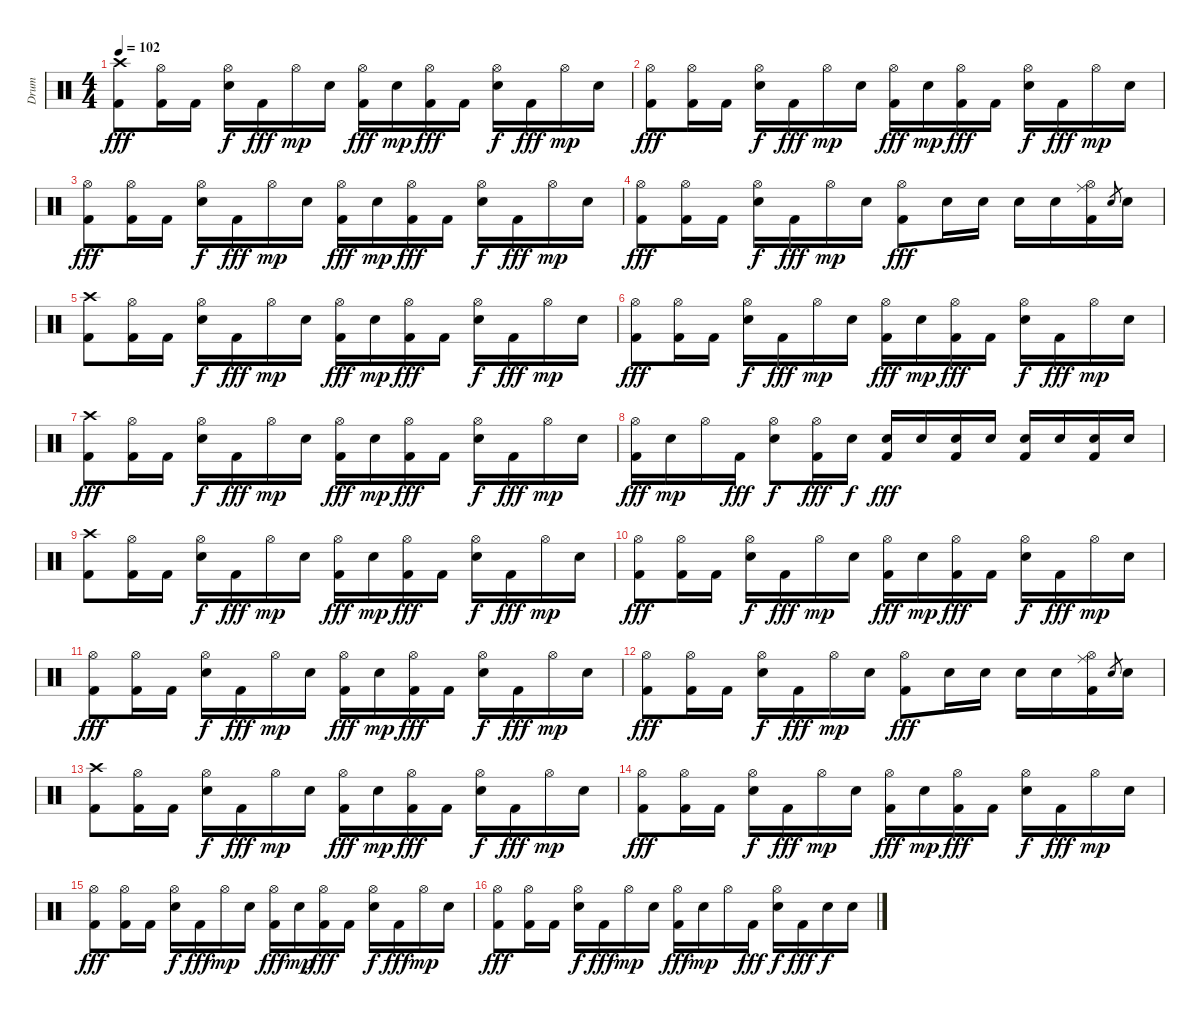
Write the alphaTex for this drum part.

\track ("Drum" "Drum") {instrument percussion}
\staff {score}
\articulation defaults
\ts (4 4)
\tempo 102
\clef neutral
\ks c
("Crash high (hit)" "Kick (hit) 2").8{dy fff} ("Hi-Hat (open)" "Kick (hit) 2").16 "Kick (hit) 2".16 ("Hi-Hat (open)" "Electric Snare (hit)").16{dy f} "Kick (hit) 2".16{dy fff} "Hi-Hat (open)".16{dy mp} "Electric Snare (hit)".16 ("Hi-Hat (open)" "Kick (hit) 2").16{dy fff} "Electric Snare (hit)".16{dy mp} ("Hi-Hat (open)" "Kick (hit) 2").16{dy fff} "Kick (hit) 2".16 ("Hi-Hat (open)" "Electric Snare (hit)").16{dy f} "Kick (hit) 2".16{dy fff} "Hi-Hat (open)".16{dy mp} "Electric Snare (hit)".16 |
("Hi-Hat (open)" "Kick (hit) 2").8{dy fff} ("Hi-Hat (open)" "Kick (hit) 2").16 "Kick (hit) 2".16 ("Hi-Hat (open)" "Electric Snare (hit)").16{dy f} "Kick (hit) 2".16{dy fff} "Hi-Hat (open)".16{dy mp} "Electric Snare (hit)".16 ("Hi-Hat (open)" "Kick (hit) 2").16{dy fff} "Electric Snare (hit)".16{dy mp} ("Hi-Hat (open)" "Kick (hit) 2").16{dy fff} "Kick (hit) 2".16 ("Hi-Hat (open)" "Electric Snare (hit)").16{dy f} "Kick (hit) 2".16{dy fff} "Hi-Hat (open)".16{dy mp} "Electric Snare (hit)".16 |
("Hi-Hat (open)" "Kick (hit) 2").8{dy fff} ("Hi-Hat (open)" "Kick (hit) 2").16 "Kick (hit) 2".16 ("Hi-Hat (open)" "Electric Snare (hit)").16{dy f} "Kick (hit) 2".16{dy fff} "Hi-Hat (open)".16{dy mp} "Electric Snare (hit)".16 ("Hi-Hat (open)" "Kick (hit) 2").16{dy fff} "Electric Snare (hit)".16{dy mp} ("Hi-Hat (open)" "Kick (hit) 2").16{dy fff} "Kick (hit) 2".16 ("Hi-Hat (open)" "Electric Snare (hit)").16{dy f} "Kick (hit) 2".16{dy fff} "Hi-Hat (open)".16{dy mp} "Electric Snare (hit)".16 |
("Hi-Hat (open)" "Kick (hit) 2").8{dy fff} ("Hi-Hat (open)" "Kick (hit) 2").16 "Kick (hit) 2".16 ("Hi-Hat (open)" "Electric Snare (hit)").16{dy f} "Kick (hit) 2".16{dy fff} "Hi-Hat (open)".16{dy mp} "Electric Snare (hit)".16 ("Hi-Hat (open)" "Kick (hit) 2").8{dy fff} "Electric Snare (hit)".16 "Electric Snare (hit)".16 "Electric Snare (hit)".16 "Electric Snare (hit)".16 ("Ride (middle)" "Hi-Hat (open)" "Kick (hit) 2").16 "Electric Snare (hit)".8{gr} "Electric Snare (hit)".16 |
("Crash high (hit)" "Kick (hit) 2").8 ("Hi-Hat (open)" "Kick (hit) 2").16 "Kick (hit) 2".16 ("Hi-Hat (open)" "Electric Snare (hit)").16{dy f} "Kick (hit) 2".16{dy fff} "Hi-Hat (open)".16{dy mp} "Electric Snare (hit)".16 ("Hi-Hat (open)" "Kick (hit) 2").16{dy fff} "Electric Snare (hit)".16{dy mp} ("Hi-Hat (open)" "Kick (hit) 2").16{dy fff} "Kick (hit) 2".16 ("Hi-Hat (open)" "Electric Snare (hit)").16{dy f} "Kick (hit) 2".16{dy fff} "Hi-Hat (open)".16{dy mp} "Electric Snare (hit)".16 |
("Hi-Hat (open)" "Kick (hit) 2").8{dy fff} ("Hi-Hat (open)" "Kick (hit) 2").16 "Kick (hit) 2".16 ("Hi-Hat (open)" "Electric Snare (hit)").16{dy f} "Kick (hit) 2".16{dy fff} "Hi-Hat (open)".16{dy mp} "Electric Snare (hit)".16 ("Hi-Hat (open)" "Kick (hit) 2").16{dy fff} "Electric Snare (hit)".16{dy mp} ("Hi-Hat (open)" "Kick (hit) 2").16{dy fff} "Kick (hit) 2".16 ("Hi-Hat (open)" "Electric Snare (hit)").16{dy f} "Kick (hit) 2".16{dy fff} "Hi-Hat (open)".16{dy mp} "Electric Snare (hit)".16 |
("Crash high (hit)" "Kick (hit) 2").8{dy fff} ("Hi-Hat (open)" "Kick (hit) 2").16 "Kick (hit) 2".16 ("Hi-Hat (open)" "Electric Snare (hit)").16{dy f} "Kick (hit) 2".16{dy fff} "Hi-Hat (open)".16{dy mp} "Electric Snare (hit)".16 ("Hi-Hat (open)" "Kick (hit) 2").16{dy fff} "Electric Snare (hit)".16{dy mp} ("Hi-Hat (open)" "Kick (hit) 2").16{dy fff} "Kick (hit) 2".16 ("Hi-Hat (open)" "Electric Snare (hit)").16{dy f} "Kick (hit) 2".16{dy fff} "Hi-Hat (open)".16{dy mp} "Electric Snare (hit)".16 |
("Hi-Hat (open)" "Kick (hit) 2").16{dy fff} "Electric Snare (hit)".16{dy mp} "Hi-Hat (open)".16 "Kick (hit) 2".16{dy fff} ("Hi-Hat (open)" "Electric Snare (hit)").8{dy f} ("Hi-Hat (open)" "Kick (hit) 2").16{dy fff} "Electric Snare (hit)".16{dy f} ("Electric Snare (hit)" "Kick (hit) 2").16{dy fff} "Electric Snare (hit)".16 ("Electric Snare (hit)" "Kick (hit) 2").16 "Electric Snare (hit)".16 ("Electric Snare (hit)" "Kick (hit) 2").16 "Electric Snare (hit)".16 ("Electric Snare (hit)" "Kick (hit) 2").16 "Electric Snare (hit)".16 |
("Crash high (hit)" "Kick (hit) 2").8 ("Hi-Hat (open)" "Kick (hit) 2").16 "Kick (hit) 2".16 ("Hi-Hat (open)" "Electric Snare (hit)").16{dy f} "Kick (hit) 2".16{dy fff} "Hi-Hat (open)".16{dy mp} "Electric Snare (hit)".16 ("Hi-Hat (open)" "Kick (hit) 2").16{dy fff} "Electric Snare (hit)".16{dy mp} ("Hi-Hat (open)" "Kick (hit) 2").16{dy fff} "Kick (hit) 2".16 ("Hi-Hat (open)" "Electric Snare (hit)").16{dy f} "Kick (hit) 2".16{dy fff} "Hi-Hat (open)".16{dy mp} "Electric Snare (hit)".16 |
("Hi-Hat (open)" "Kick (hit) 2").8{dy fff} ("Hi-Hat (open)" "Kick (hit) 2").16 "Kick (hit) 2".16 ("Hi-Hat (open)" "Electric Snare (hit)").16{dy f} "Kick (hit) 2".16{dy fff} "Hi-Hat (open)".16{dy mp} "Electric Snare (hit)".16 ("Hi-Hat (open)" "Kick (hit) 2").16{dy fff} "Electric Snare (hit)".16{dy mp} ("Hi-Hat (open)" "Kick (hit) 2").16{dy fff} "Kick (hit) 2".16 ("Hi-Hat (open)" "Electric Snare (hit)").16{dy f} "Kick (hit) 2".16{dy fff} "Hi-Hat (open)".16{dy mp} "Electric Snare (hit)".16 |
("Hi-Hat (open)" "Kick (hit) 2").8{dy fff} ("Hi-Hat (open)" "Kick (hit) 2").16 "Kick (hit) 2".16 ("Hi-Hat (open)" "Electric Snare (hit)").16{dy f} "Kick (hit) 2".16{dy fff} "Hi-Hat (open)".16{dy mp} "Electric Snare (hit)".16 ("Hi-Hat (open)" "Kick (hit) 2").16{dy fff} "Electric Snare (hit)".16{dy mp} ("Hi-Hat (open)" "Kick (hit) 2").16{dy fff} "Kick (hit) 2".16 ("Hi-Hat (open)" "Electric Snare (hit)").16{dy f} "Kick (hit) 2".16{dy fff} "Hi-Hat (open)".16{dy mp} "Electric Snare (hit)".16 |
("Hi-Hat (open)" "Kick (hit) 2").8{dy fff} ("Hi-Hat (open)" "Kick (hit) 2").16 "Kick (hit) 2".16 ("Hi-Hat (open)" "Electric Snare (hit)").16{dy f} "Kick (hit) 2".16{dy fff} "Hi-Hat (open)".16{dy mp} "Electric Snare (hit)".16 ("Hi-Hat (open)" "Kick (hit) 2").8{dy fff} "Electric Snare (hit)".16 "Electric Snare (hit)".16 "Electric Snare (hit)".16 "Electric Snare (hit)".16 ("Ride (middle)" "Hi-Hat (open)" "Kick (hit) 2").16 "Electric Snare (hit)".8{gr} "Electric Snare (hit)".16 |
("Crash high (hit)" "Kick (hit) 2").8 ("Hi-Hat (open)" "Kick (hit) 2").16 "Kick (hit) 2".16 ("Hi-Hat (open)" "Electric Snare (hit)").16{dy f} "Kick (hit) 2".16{dy fff} "Hi-Hat (open)".16{dy mp} "Electric Snare (hit)".16 ("Hi-Hat (open)" "Kick (hit) 2").16{dy fff} "Electric Snare (hit)".16{dy mp} ("Hi-Hat (open)" "Kick (hit) 2").16{dy fff} "Kick (hit) 2".16 ("Hi-Hat (open)" "Electric Snare (hit)").16{dy f} "Kick (hit) 2".16{dy fff} "Hi-Hat (open)".16{dy mp} "Electric Snare (hit)".16 |
("Hi-Hat (open)" "Kick (hit) 2").8{dy fff} ("Hi-Hat (open)" "Kick (hit) 2").16 "Kick (hit) 2".16 ("Hi-Hat (open)" "Electric Snare (hit)").16{dy f} "Kick (hit) 2".16{dy fff} "Hi-Hat (open)".16{dy mp} "Electric Snare (hit)".16 ("Hi-Hat (open)" "Kick (hit) 2").16{dy fff} "Electric Snare (hit)".16{dy mp} ("Hi-Hat (open)" "Kick (hit) 2").16{dy fff} "Kick (hit) 2".16 ("Hi-Hat (open)" "Electric Snare (hit)").16{dy f} "Kick (hit) 2".16{dy fff} "Hi-Hat (open)".16{dy mp} "Electric Snare (hit)".16 |
("Hi-Hat (open)" "Kick (hit) 2").8{dy fff} ("Hi-Hat (open)" "Kick (hit) 2").16 "Kick (hit) 2".16 ("Hi-Hat (open)" "Electric Snare (hit)").16{dy f} "Kick (hit) 2".16{dy fff} "Hi-Hat (open)".16{dy mp} "Electric Snare (hit)".16 ("Hi-Hat (open)" "Kick (hit) 2").16{dy fff} "Electric Snare (hit)".16{dy mp} ("Hi-Hat (open)" "Kick (hit) 2").16{dy fff} "Kick (hit) 2".16 ("Hi-Hat (open)" "Electric Snare (hit)").16{dy f} "Kick (hit) 2".16{dy fff} "Hi-Hat (open)".16{dy mp} "Electric Snare (hit)".16 |
("Hi-Hat (open)" "Kick (hit) 2").8{dy fff} ("Hi-Hat (open)" "Kick (hit) 2").16 "Kick (hit) 2".16 ("Hi-Hat (open)" "Electric Snare (hit)").16{dy f} "Kick (hit) 2".16{dy fff} "Hi-Hat (open)".16{dy mp} "Electric Snare (hit)".16 ("Hi-Hat (open)" "Kick (hit) 2").16{dy fff} "Electric Snare (hit)".16{dy mp} "Hi-Hat (open)".16 "Kick (hit) 2".16{dy fff} ("Hi-Hat (open)" "Electric Snare (hit)").16{dy f} "Kick (hit) 2".16{dy fff} "Electric Snare (hit)".16{dy f} "Electric Snare (hit)".16
